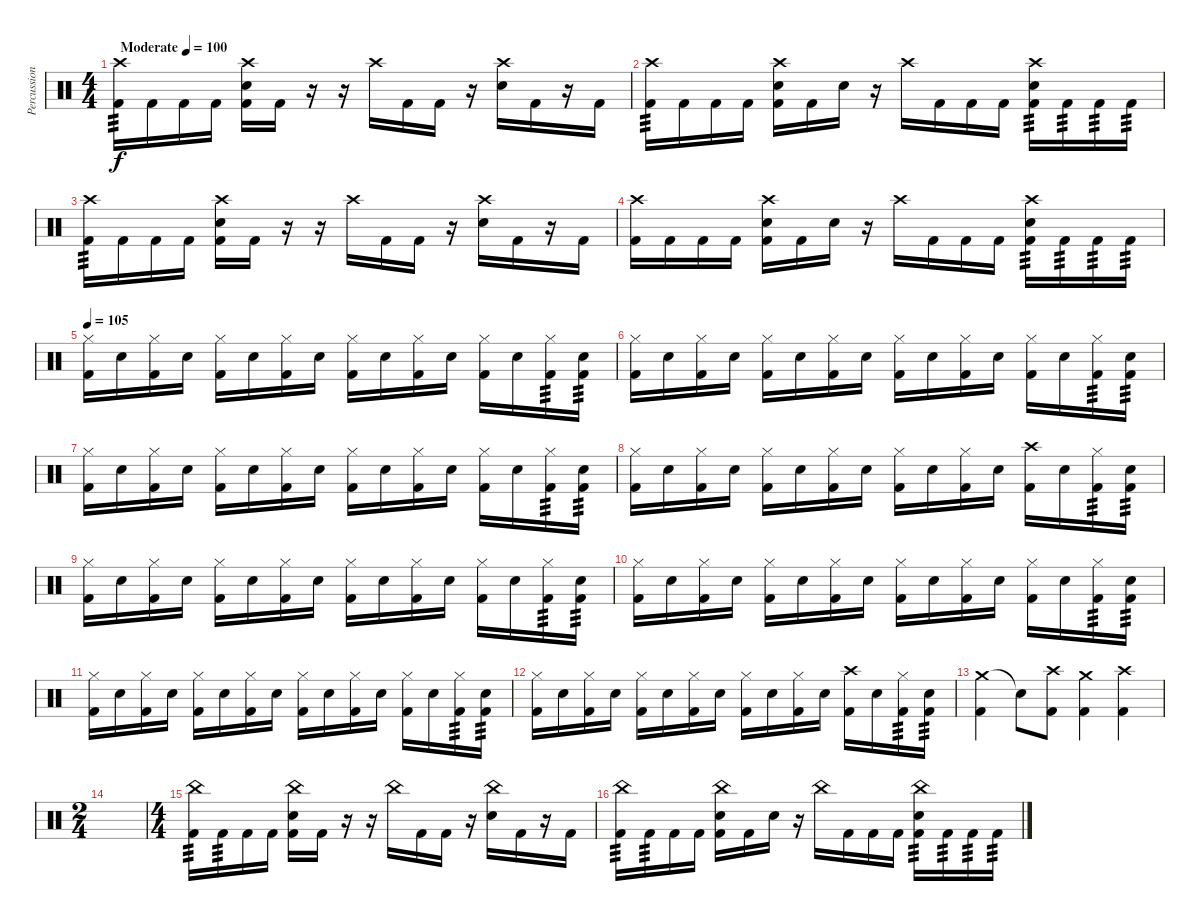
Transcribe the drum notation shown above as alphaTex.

\track ("Percussion" "Percussion") {instrument percussion}
\staff {score}
\articulation defaults
\ts (4 4)
\tempo (100 "Moderate")
\clef neutral
\ks c
("Crash high (hit)" "Kick (hit) 2").16{tp 3 dy f} "Kick (hit) 2".16 "Kick (hit) 2".16 "Kick (hit) 2".16 ("Crash high (hit)" "Electric Snare (hit)" "Kick (hit) 2").16 "Kick (hit) 2".16 r.16 r.16 "Crash high (hit)".16 "Kick (hit) 2".16 "Kick (hit) 2".16 r.16 ("Crash high (hit)" "Electric Snare (hit)").16 "Kick (hit) 2".16 r.16 "Kick (hit) 2".16 |
("Crash high (hit)" "Kick (hit) 2").16{tp 3} "Kick (hit) 2".16 "Kick (hit) 2".16 "Kick (hit) 2".16 ("Crash high (hit)" "Electric Snare (hit)" "Kick (hit) 2").16 "Kick (hit) 2".16 "Electric Snare (hit)".16 r.16 "Crash high (hit)".16 "Kick (hit) 2".16 "Kick (hit) 2".16 "Kick (hit) 2".16 ("Crash high (hit)" "Electric Snare (hit)" "Kick (hit) 2").16{tp 3} "Kick (hit) 2".16{tp 3} "Kick (hit) 2".16{tp 3} "Kick (hit) 2".16{tp 3} |
("Crash high (hit)" "Kick (hit) 2").16{tp 3} "Kick (hit) 2".16 "Kick (hit) 2".16 "Kick (hit) 2".16 ("Crash high (hit)" "Electric Snare (hit)" "Kick (hit) 2").16 "Kick (hit) 2".16 r.16 r.16 "Crash high (hit)".16 "Kick (hit) 2".16 "Kick (hit) 2".16 r.16 ("Crash high (hit)" "Electric Snare (hit)").16 "Kick (hit) 2".16 r.16 "Kick (hit) 2".16 |
("Crash high (hit)" "Kick (hit) 2").16 "Kick (hit) 2".16 "Kick (hit) 2".16 "Kick (hit) 2".16 ("Crash high (hit)" "Electric Snare (hit)" "Kick (hit) 2").16 "Kick (hit) 2".16 "Electric Snare (hit)".16 r.16 "Crash high (hit)".16 "Kick (hit) 2".16 "Kick (hit) 2".16 "Kick (hit) 2".16 ("Crash high (hit)" "Electric Snare (hit)" "Kick (hit) 2").16{tp 3} "Kick (hit) 2".16{tp 3} "Kick (hit) 2".16{tp 3} "Kick (hit) 2".16{tp 3} |
\tempo 105
("Hi-Hat (closed)" "Kick (hit) 2").16 "Snare (hit) 2".16 ("Hi-Hat (closed)" "Kick (hit) 2").16 "Snare (hit) 2".16 ("Hi-Hat (closed)" "Kick (hit) 2").16 "Snare (hit) 2".16 ("Hi-Hat (closed)" "Kick (hit) 2").16 "Snare (hit) 2".16 ("Hi-Hat (closed)" "Kick (hit) 2").16 "Snare (hit) 2".16 ("Hi-Hat (closed)" "Kick (hit) 2").16 "Snare (hit) 2".16 ("Hi-Hat (closed)" "Kick (hit) 2").16 "Snare (hit) 2".16 ("Hi-Hat (closed)" "Kick (hit) 2").16{tp 3} ("Snare (hit) 2" "Kick (hit) 2").16{tp 3} |
("Hi-Hat (closed)" "Kick (hit) 2").16 "Snare (hit) 2".16 ("Hi-Hat (closed)" "Kick (hit) 2").16 "Snare (hit) 2".16 ("Hi-Hat (closed)" "Kick (hit) 2").16 "Snare (hit) 2".16 ("Hi-Hat (closed)" "Kick (hit) 2").16 "Snare (hit) 2".16 ("Hi-Hat (closed)" "Kick (hit) 2").16 "Snare (hit) 2".16 ("Hi-Hat (closed)" "Kick (hit) 2").16 "Snare (hit) 2".16 ("Hi-Hat (closed)" "Kick (hit) 2").16 "Snare (hit) 2".16 ("Hi-Hat (closed)" "Kick (hit) 2").16{tp 3} ("Snare (hit) 2" "Kick (hit) 2").16{tp 3} |
("Hi-Hat (closed)" "Kick (hit) 2").16 "Snare (hit) 2".16 ("Hi-Hat (closed)" "Kick (hit) 2").16 "Snare (hit) 2".16 ("Hi-Hat (closed)" "Kick (hit) 2").16 "Snare (hit) 2".16 ("Hi-Hat (closed)" "Kick (hit) 2").16 "Snare (hit) 2".16 ("Hi-Hat (closed)" "Kick (hit) 2").16 "Snare (hit) 2".16 ("Hi-Hat (closed)" "Kick (hit) 2").16 "Snare (hit) 2".16 ("Hi-Hat (closed)" "Kick (hit) 2").16 "Snare (hit) 2".16 ("Hi-Hat (closed)" "Kick (hit) 2").16{tp 3} ("Snare (hit) 2" "Kick (hit) 2").16{tp 3} |
("Hi-Hat (closed)" "Kick (hit) 2").16 "Snare (hit) 2".16 ("Hi-Hat (closed)" "Kick (hit) 2").16 "Snare (hit) 2".16 ("Hi-Hat (closed)" "Kick (hit) 2").16 "Snare (hit) 2".16 ("Hi-Hat (closed)" "Kick (hit) 2").16 "Snare (hit) 2".16 ("Hi-Hat (closed)" "Kick (hit) 2").16 "Snare (hit) 2".16 ("Hi-Hat (closed)" "Kick (hit) 2").16 "Snare (hit) 2".16 ("Crash high (hit)" "Kick (hit) 2").16 "Snare (hit) 2".16 ("Hi-Hat (closed)" "Kick (hit) 2").16{tp 3} ("Snare (hit) 2" "Kick (hit) 2").16{tp 3} |
("Hi-Hat (closed)" "Kick (hit) 2").16 "Snare (hit) 2".16 ("Hi-Hat (closed)" "Kick (hit) 2").16 "Snare (hit) 2".16 ("Hi-Hat (closed)" "Kick (hit) 2").16 "Snare (hit) 2".16 ("Hi-Hat (closed)" "Kick (hit) 2").16 "Snare (hit) 2".16 ("Hi-Hat (closed)" "Kick (hit) 2").16 "Snare (hit) 2".16 ("Hi-Hat (closed)" "Kick (hit) 2").16 "Snare (hit) 2".16 ("Hi-Hat (closed)" "Kick (hit) 2").16 "Snare (hit) 2".16 ("Hi-Hat (closed)" "Kick (hit) 2").16{tp 3} ("Snare (hit) 2" "Kick (hit) 2").16{tp 3} |
("Hi-Hat (closed)" "Kick (hit) 2").16 "Snare (hit) 2".16 ("Hi-Hat (closed)" "Kick (hit) 2").16 "Snare (hit) 2".16 ("Hi-Hat (closed)" "Kick (hit) 2").16 "Snare (hit) 2".16 ("Hi-Hat (closed)" "Kick (hit) 2").16 "Snare (hit) 2".16 ("Hi-Hat (closed)" "Kick (hit) 2").16 "Snare (hit) 2".16 ("Hi-Hat (closed)" "Kick (hit) 2").16 "Snare (hit) 2".16 ("Hi-Hat (closed)" "Kick (hit) 2").16 "Snare (hit) 2".16 ("Hi-Hat (closed)" "Kick (hit) 2").16{tp 3} ("Snare (hit) 2" "Kick (hit) 2").16{tp 3} |
("Hi-Hat (closed)" "Kick (hit) 2").16 "Snare (hit) 2".16 ("Hi-Hat (closed)" "Kick (hit) 2").16 "Snare (hit) 2".16 ("Hi-Hat (closed)" "Kick (hit) 2").16 "Snare (hit) 2".16 ("Hi-Hat (closed)" "Kick (hit) 2").16 "Snare (hit) 2".16 ("Hi-Hat (closed)" "Kick (hit) 2").16 "Snare (hit) 2".16 ("Hi-Hat (closed)" "Kick (hit) 2").16 "Snare (hit) 2".16 ("Hi-Hat (closed)" "Kick (hit) 2").16 "Snare (hit) 2".16 ("Hi-Hat (closed)" "Kick (hit) 2").16{tp 3} ("Snare (hit) 2" "Kick (hit) 2").16{tp 3} |
("Hi-Hat (closed)" "Kick (hit) 2").16 "Snare (hit) 2".16 ("Hi-Hat (closed)" "Kick (hit) 2").16 "Snare (hit) 2".16 ("Hi-Hat (closed)" "Kick (hit) 2").16 "Snare (hit) 2".16 ("Hi-Hat (closed)" "Kick (hit) 2").16 "Snare (hit) 2".16 ("Hi-Hat (closed)" "Kick (hit) 2").16 "Snare (hit) 2".16 ("Hi-Hat (closed)" "Kick (hit) 2").16 "Snare (hit) 2".16 ("Crash high (hit)" "Kick (hit) 2").16 "Snare (hit) 2".16 ("Hi-Hat (closed)" "Kick (hit) 2").16{tp 3} ("Snare (hit) 2" "Kick (hit) 2").16{tp 3} |
("Crash medium (hit)" "Kick (hit) 2").4 "Snare (hit)"{t}.8 ("Crash high (hit)" "Kick (hit) 2").8 ("Crash medium (hit)" "Kick (hit) 2").4 ("Crash high (hit)" "Kick (hit) 2").4 |
\ts (2 4)
|
\ts (4 4)
("China (hit)" "Kick (hit) 2").16{tp 3} "Kick (hit) 2".16{tp 3} "Kick (hit) 2".16 "Kick (hit) 2".16 ("China (hit)" "Electric Snare (hit)" "Kick (hit) 2").16 "Kick (hit) 2".16 r.16 r.16 "China (hit)".16 "Kick (hit) 2".16 "Kick (hit) 2".16 r.16 ("China (hit)" "Electric Snare (hit)").16 "Kick (hit) 2".16 r.16 "Kick (hit) 2".16 |
("China (hit)" "Kick (hit) 2").16{tp 3} "Kick (hit) 2".16{tp 3} "Kick (hit) 2".16 "Kick (hit) 2".16 ("China (hit)" "Electric Snare (hit)" "Kick (hit) 2").16 "Kick (hit) 2".16 "Electric Snare (hit)".16 r.16 "China (hit)".16 "Kick (hit) 2".16 "Kick (hit) 2".16 "Kick (hit) 2".16 ("China (hit)" "Electric Snare (hit)" "Kick (hit) 2").16{tp 3} "Kick (hit) 2".16{tp 3} "Kick (hit) 2".16{tp 3} "Kick (hit) 2".16{tp 3}
